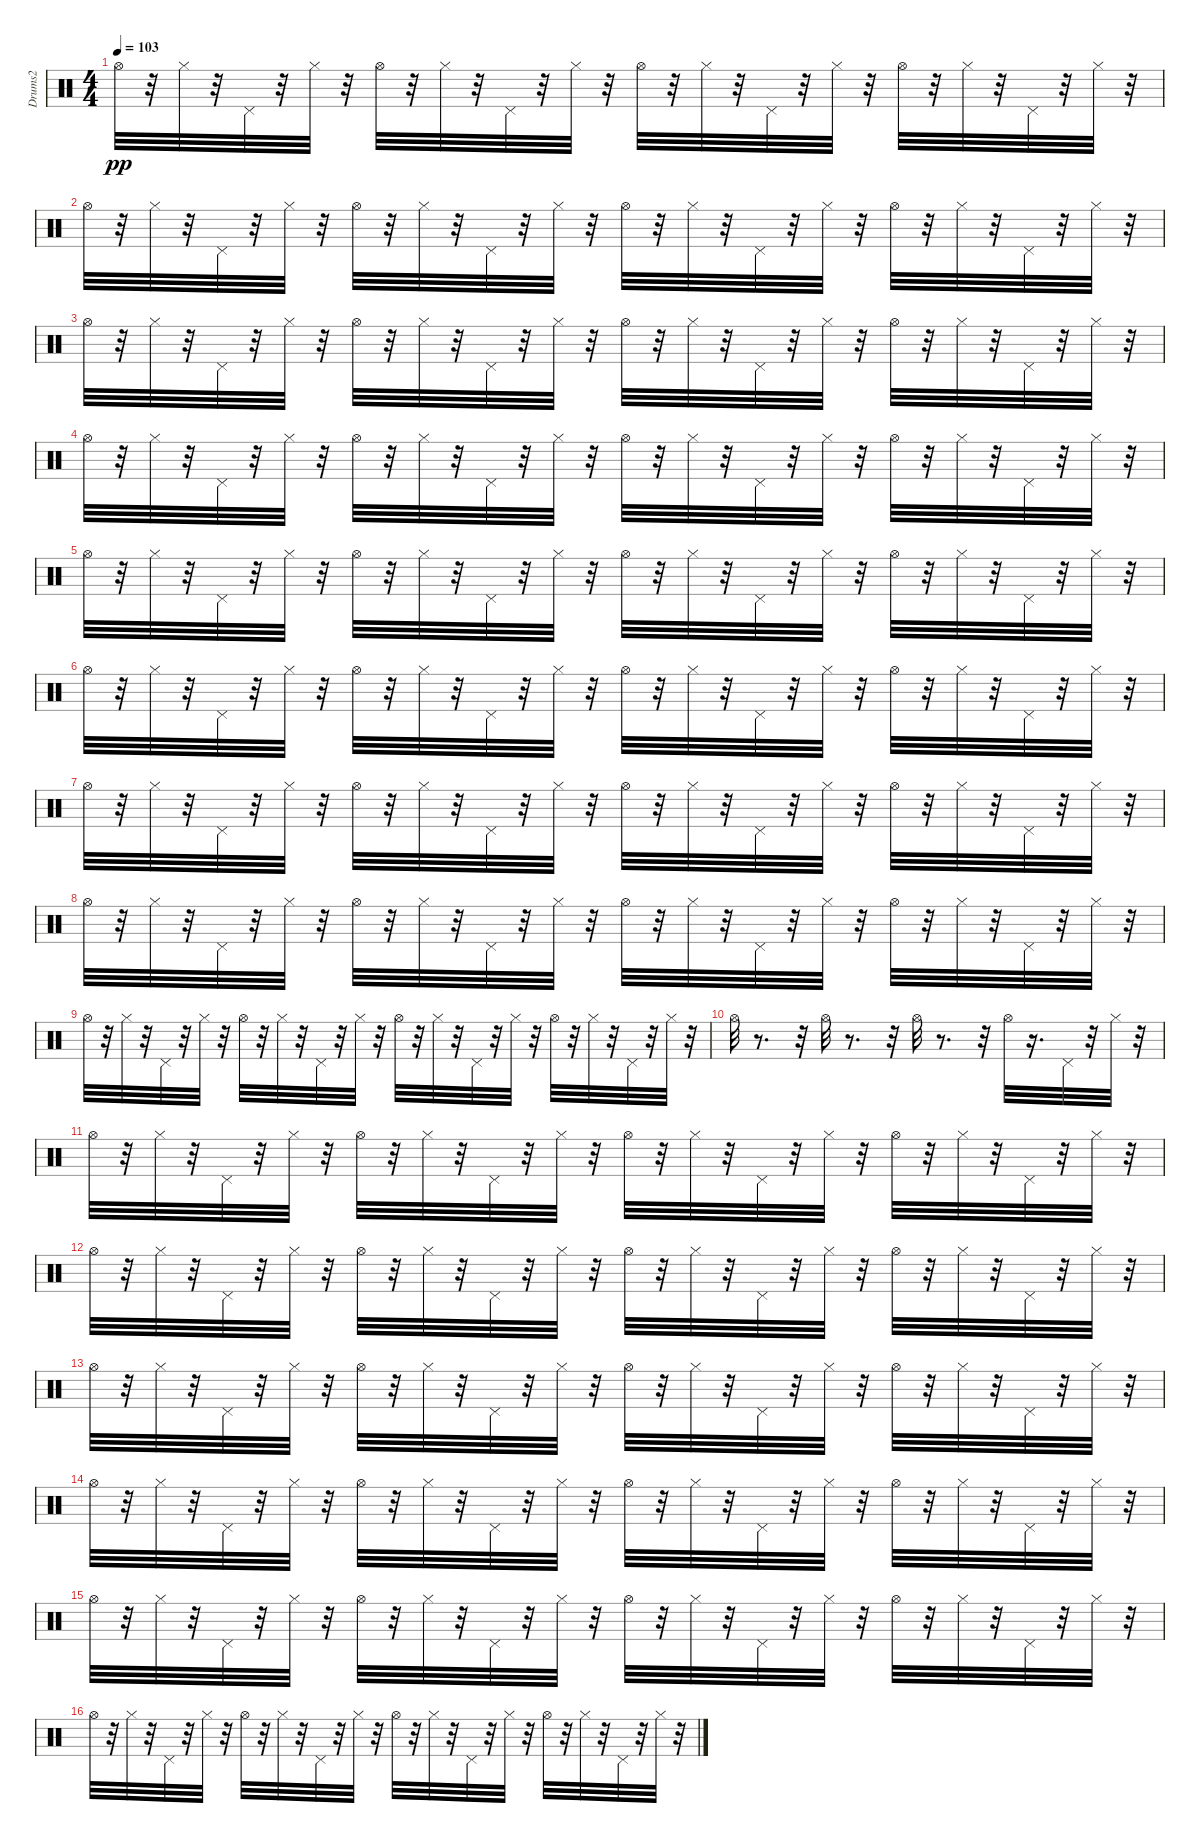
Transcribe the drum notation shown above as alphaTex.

\track ("Drums2" "Drums2") {instrument percussion}
\staff {score}
\articulation defaults
\ts (4 4)
\tempo 103
\clef neutral
\ks c "Hi-Hat (open)".32{dy pp}
r.32 "Hi-Hat (closed)".32 r.32 "Pedal Hi-Hat (hit)".32 r.32 "Hi-Hat (closed)".32 r.32 "Hi-Hat (open)".32 r.32 "Hi-Hat (closed)".32 r.32 "Pedal Hi-Hat (hit)".32 r.32 "Hi-Hat (closed)".32 r.32 "Hi-Hat (open)".32 r.32 "Hi-Hat (closed)".32 r.32 "Pedal Hi-Hat (hit)".32 r.32 "Hi-Hat (closed)".32 r.32 "Hi-Hat (open)".32 r.32 "Hi-Hat (closed)".32 r.32 "Pedal Hi-Hat (hit)".32 r.32 "Hi-Hat (closed)".32 r.32 |
"Hi-Hat (open)".32 r.32 "Hi-Hat (closed)".32 r.32 "Pedal Hi-Hat (hit)".32 r.32 "Hi-Hat (closed)".32 r.32 "Hi-Hat (open)".32 r.32 "Hi-Hat (closed)".32 r.32 "Pedal Hi-Hat (hit)".32 r.32 "Hi-Hat (closed)".32 r.32 "Hi-Hat (open)".32 r.32 "Hi-Hat (closed)".32 r.32 "Pedal Hi-Hat (hit)".32 r.32 "Hi-Hat (closed)".32 r.32 "Hi-Hat (open)".32 r.32 "Hi-Hat (closed)".32 r.32 "Pedal Hi-Hat (hit)".32 r.32 "Hi-Hat (closed)".32 r.32 |
"Hi-Hat (open)".32 r.32 "Hi-Hat (closed)".32 r.32 "Pedal Hi-Hat (hit)".32 r.32 "Hi-Hat (closed)".32 r.32 "Hi-Hat (open)".32 r.32 "Hi-Hat (closed)".32 r.32 "Pedal Hi-Hat (hit)".32 r.32 "Hi-Hat (closed)".32 r.32 "Hi-Hat (open)".32 r.32 "Hi-Hat (closed)".32 r.32 "Pedal Hi-Hat (hit)".32 r.32 "Hi-Hat (closed)".32 r.32 "Hi-Hat (open)".32 r.32 "Hi-Hat (closed)".32 r.32 "Pedal Hi-Hat (hit)".32 r.32 "Hi-Hat (closed)".32 r.32 |
"Hi-Hat (open)".32 r.32 "Hi-Hat (closed)".32 r.32 "Pedal Hi-Hat (hit)".32 r.32 "Hi-Hat (closed)".32 r.32 "Hi-Hat (open)".32 r.32 "Hi-Hat (closed)".32 r.32 "Pedal Hi-Hat (hit)".32 r.32 "Hi-Hat (closed)".32 r.32 "Hi-Hat (open)".32 r.32 "Hi-Hat (closed)".32 r.32 "Pedal Hi-Hat (hit)".32 r.32 "Hi-Hat (closed)".32 r.32 "Hi-Hat (open)".32 r.32 "Hi-Hat (closed)".32 r.32 "Pedal Hi-Hat (hit)".32 r.32 "Hi-Hat (closed)".32 r.32 |
"Hi-Hat (open)".32 r.32 "Hi-Hat (closed)".32 r.32 "Pedal Hi-Hat (hit)".32 r.32 "Hi-Hat (closed)".32 r.32 "Hi-Hat (open)".32 r.32 "Hi-Hat (closed)".32 r.32 "Pedal Hi-Hat (hit)".32 r.32 "Hi-Hat (closed)".32 r.32 "Hi-Hat (open)".32 r.32 "Hi-Hat (closed)".32 r.32 "Pedal Hi-Hat (hit)".32 r.32 "Hi-Hat (closed)".32 r.32 "Hi-Hat (open)".32 r.32 "Hi-Hat (closed)".32 r.32 "Pedal Hi-Hat (hit)".32 r.32 "Hi-Hat (closed)".32 r.32 |
"Hi-Hat (open)".32 r.32 "Hi-Hat (closed)".32 r.32 "Pedal Hi-Hat (hit)".32 r.32 "Hi-Hat (closed)".32 r.32 "Hi-Hat (open)".32 r.32 "Hi-Hat (closed)".32 r.32 "Pedal Hi-Hat (hit)".32 r.32 "Hi-Hat (closed)".32 r.32 "Hi-Hat (open)".32 r.32 "Hi-Hat (closed)".32 r.32 "Pedal Hi-Hat (hit)".32 r.32 "Hi-Hat (closed)".32 r.32 "Hi-Hat (open)".32 r.32 "Hi-Hat (closed)".32 r.32 "Pedal Hi-Hat (hit)".32 r.32 "Hi-Hat (closed)".32 r.32 |
"Hi-Hat (open)".32 r.32 "Hi-Hat (closed)".32 r.32 "Pedal Hi-Hat (hit)".32 r.32 "Hi-Hat (closed)".32 r.32 "Hi-Hat (open)".32 r.32 "Hi-Hat (closed)".32 r.32 "Pedal Hi-Hat (hit)".32 r.32 "Hi-Hat (closed)".32 r.32 "Hi-Hat (open)".32 r.32 "Hi-Hat (closed)".32 r.32 "Pedal Hi-Hat (hit)".32 r.32 "Hi-Hat (closed)".32 r.32 "Hi-Hat (open)".32 r.32 "Hi-Hat (closed)".32 r.32 "Pedal Hi-Hat (hit)".32 r.32 "Hi-Hat (closed)".32 r.32 |
"Hi-Hat (open)".32 r.32 "Hi-Hat (closed)".32 r.32 "Pedal Hi-Hat (hit)".32 r.32 "Hi-Hat (closed)".32 r.32 "Hi-Hat (open)".32 r.32 "Hi-Hat (closed)".32 r.32 "Pedal Hi-Hat (hit)".32 r.32 "Hi-Hat (closed)".32 r.32 "Hi-Hat (open)".32 r.32 "Hi-Hat (closed)".32 r.32 "Pedal Hi-Hat (hit)".32 r.32 "Hi-Hat (closed)".32 r.32 "Hi-Hat (open)".32 r.32 "Hi-Hat (closed)".32 r.32 "Pedal Hi-Hat (hit)".32 r.32 "Hi-Hat (closed)".32 r.32 |
"Hi-Hat (open)".32 r.32 "Hi-Hat (closed)".32 r.32 "Pedal Hi-Hat (hit)".32 r.32 "Hi-Hat (closed)".32 r.32 "Hi-Hat (open)".32 r.32 "Hi-Hat (closed)".32 r.32 "Pedal Hi-Hat (hit)".32 r.32 "Hi-Hat (closed)".32 r.32 "Hi-Hat (open)".32 r.32 "Hi-Hat (closed)".32 r.32 "Pedal Hi-Hat (hit)".32 r.32 "Hi-Hat (closed)".32 r.32 "Hi-Hat (open)".32 r.32 "Hi-Hat (closed)".32 r.32 "Pedal Hi-Hat (hit)".32 r.32 "Hi-Hat (closed)".32 r.32 |
"Hi-Hat (open)".32 r.8{d} r.32 "Hi-Hat (open)".32 r.8{d} r.32 "Hi-Hat (open)".32 r.8{d} r.32 "Hi-Hat (open)".32 r.16{d} "Pedal Hi-Hat (hit)".32 r.32 "Hi-Hat (closed)".32 r.32 |
"Hi-Hat (open)".32 r.32 "Hi-Hat (closed)".32 r.32 "Pedal Hi-Hat (hit)".32 r.32 "Hi-Hat (closed)".32 r.32 "Hi-Hat (open)".32 r.32 "Hi-Hat (closed)".32 r.32 "Pedal Hi-Hat (hit)".32 r.32 "Hi-Hat (closed)".32 r.32 "Hi-Hat (open)".32 r.32 "Hi-Hat (closed)".32 r.32 "Pedal Hi-Hat (hit)".32 r.32 "Hi-Hat (closed)".32 r.32 "Hi-Hat (open)".32 r.32 "Hi-Hat (closed)".32 r.32 "Pedal Hi-Hat (hit)".32 r.32 "Hi-Hat (closed)".32 r.32 |
"Hi-Hat (open)".32 r.32 "Hi-Hat (closed)".32 r.32 "Pedal Hi-Hat (hit)".32 r.32 "Hi-Hat (closed)".32 r.32 "Hi-Hat (open)".32 r.32 "Hi-Hat (closed)".32 r.32 "Pedal Hi-Hat (hit)".32 r.32 "Hi-Hat (closed)".32 r.32 "Hi-Hat (open)".32 r.32 "Hi-Hat (closed)".32 r.32 "Pedal Hi-Hat (hit)".32 r.32 "Hi-Hat (closed)".32 r.32 "Hi-Hat (open)".32 r.32 "Hi-Hat (closed)".32 r.32 "Pedal Hi-Hat (hit)".32 r.32 "Hi-Hat (closed)".32 r.32 |
"Hi-Hat (open)".32 r.32 "Hi-Hat (closed)".32 r.32 "Pedal Hi-Hat (hit)".32 r.32 "Hi-Hat (closed)".32 r.32 "Hi-Hat (open)".32 r.32 "Hi-Hat (closed)".32 r.32 "Pedal Hi-Hat (hit)".32 r.32 "Hi-Hat (closed)".32 r.32 "Hi-Hat (open)".32 r.32 "Hi-Hat (closed)".32 r.32 "Pedal Hi-Hat (hit)".32 r.32 "Hi-Hat (closed)".32 r.32 "Hi-Hat (open)".32 r.32 "Hi-Hat (closed)".32 r.32 "Pedal Hi-Hat (hit)".32 r.32 "Hi-Hat (closed)".32 r.32 |
"Hi-Hat (open)".32 r.32 "Hi-Hat (closed)".32 r.32 "Pedal Hi-Hat (hit)".32 r.32 "Hi-Hat (closed)".32 r.32 "Hi-Hat (open)".32 r.32 "Hi-Hat (closed)".32 r.32 "Pedal Hi-Hat (hit)".32 r.32 "Hi-Hat (closed)".32 r.32 "Hi-Hat (open)".32 r.32 "Hi-Hat (closed)".32 r.32 "Pedal Hi-Hat (hit)".32 r.32 "Hi-Hat (closed)".32 r.32 "Hi-Hat (open)".32 r.32 "Hi-Hat (closed)".32 r.32 "Pedal Hi-Hat (hit)".32 r.32 "Hi-Hat (closed)".32 r.32 |
"Hi-Hat (open)".32 r.32 "Hi-Hat (closed)".32 r.32 "Pedal Hi-Hat (hit)".32 r.32 "Hi-Hat (closed)".32 r.32 "Hi-Hat (open)".32 r.32 "Hi-Hat (closed)".32 r.32 "Pedal Hi-Hat (hit)".32 r.32 "Hi-Hat (closed)".32 r.32 "Hi-Hat (open)".32 r.32 "Hi-Hat (closed)".32 r.32 "Pedal Hi-Hat (hit)".32 r.32 "Hi-Hat (closed)".32 r.32 "Hi-Hat (open)".32 r.32 "Hi-Hat (closed)".32 r.32 "Pedal Hi-Hat (hit)".32 r.32 "Hi-Hat (closed)".32 r.32 |
"Hi-Hat (open)".32 r.32 "Hi-Hat (closed)".32 r.32 "Pedal Hi-Hat (hit)".32 r.32 "Hi-Hat (closed)".32 r.32 "Hi-Hat (open)".32 r.32 "Hi-Hat (closed)".32 r.32 "Pedal Hi-Hat (hit)".32 r.32 "Hi-Hat (closed)".32 r.32 "Hi-Hat (open)".32 r.32 "Hi-Hat (closed)".32 r.32 "Pedal Hi-Hat (hit)".32 r.32 "Hi-Hat (closed)".32 r.32 "Hi-Hat (open)".32 r.32 "Hi-Hat (closed)".32 r.32 "Pedal Hi-Hat (hit)".32 r.32 "Hi-Hat (closed)".32 r.32
